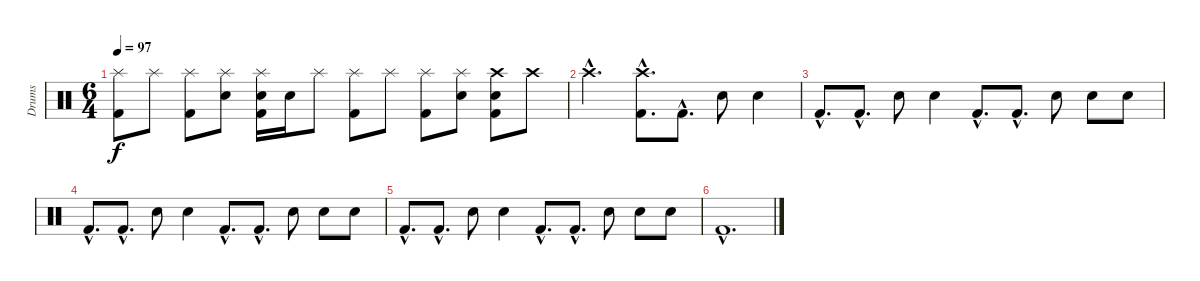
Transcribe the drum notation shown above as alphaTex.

\track ("Drums" "Drums") {instrument percussion}
\staff {score}
\articulation defaults
\ts (6 4)
\tempo 97
\clef neutral
\ks c
("Splash (hit)" "Kick (hit) 2").8{dy f} "Splash (hit)".8 ("Splash (hit)" "Kick (hit) 2").8 ("Splash (hit)" "Snare (hit) 2").8 ("Splash (hit)" "Snare (hit) 2" "Kick (hit) 2").16 "Snare (hit) 2".16 "Splash (hit)".8 ("Splash (hit)" "Kick (hit) 2").8 "Splash (hit)".8 ("Splash (hit)" "Kick (hit) 2").8 ("Splash (hit)" "Snare (hit) 2").8 ("Crash high (hit)" "Snare (hit) 2" "Kick (hit) 2").8 "Crash high (hit)".8 |
"Crash high (hit)"{hac}.2{d} ("Crash high (hit)"{hac} "Kick (hit) 2"{hac}).8{d} "Kick (hit) 2"{hac}.8{d} "Electric Snare (hit)".8 "Electric Snare (hit)".4 |
"Kick (hit) 2"{hac}.8{d} "Kick (hit) 2"{hac}.8{d} "Electric Snare (hit)".8 "Electric Snare (hit)".4 "Kick (hit) 2"{hac}.8{d} "Kick (hit) 2"{hac}.8{d} "Electric Snare (hit)".8 "Electric Snare (hit)".8 "Electric Snare (hit)".8 |
"Kick (hit) 2"{hac}.8{d} "Kick (hit) 2"{hac}.8{d} "Electric Snare (hit)".8 "Electric Snare (hit)".4 "Kick (hit) 2"{hac}.8{d} "Kick (hit) 2"{hac}.8{d} "Electric Snare (hit)".8 "Electric Snare (hit)".8 "Electric Snare (hit)".8 |
"Kick (hit) 2"{hac}.8{d} "Kick (hit) 2"{hac}.8{d} "Electric Snare (hit)".8 "Electric Snare (hit)".4 "Kick (hit) 2"{hac}.8{d} "Kick (hit) 2"{hac}.8{d} "Electric Snare (hit)".8 "Electric Snare (hit)".8 "Electric Snare (hit)".8 |
"Kick (hit) 2"{hac}.1{d}
